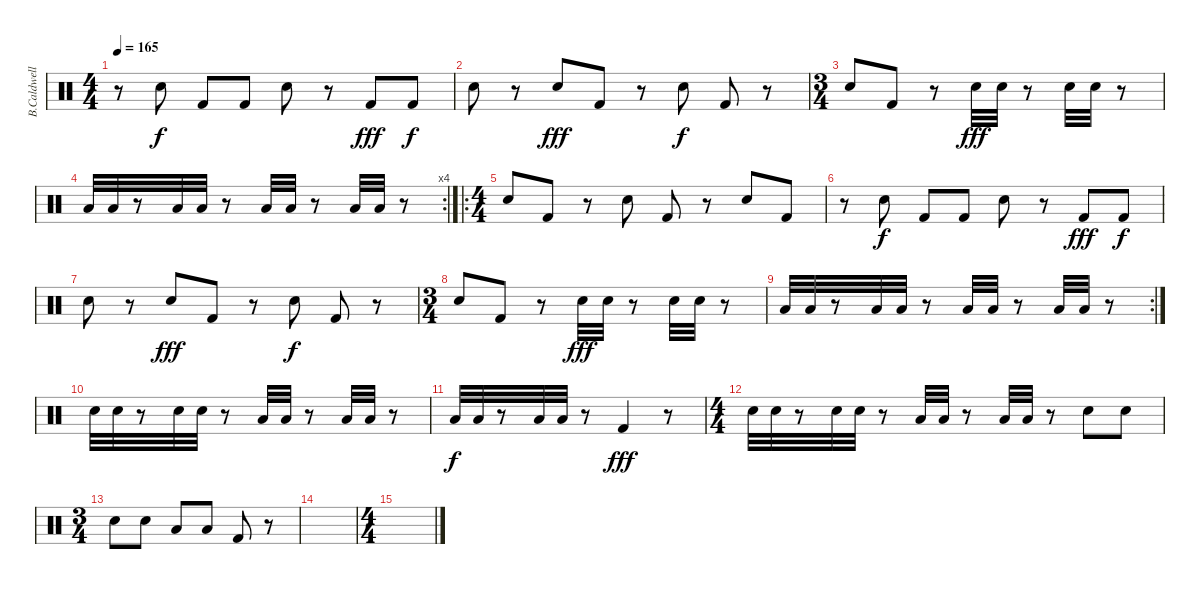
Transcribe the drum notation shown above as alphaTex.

\track ("B.Caldwell" "B.Caldwell") {instrument percussion}
\staff {score}
\articulation defaults
\ts (4 4)
\tempo 165
\clef neutral
\ks c
r.8{dy fff} "Snare (hit) 2".8{dy f} "Kick (hit) 2".8 "Kick (hit) 2".8 "Snare (hit) 2".8 r.8 "Kick (hit) 2".8{dy fff} "Kick (hit) 2".8{dy f} |
"Snare (hit) 2".8 r.8 "Snare (hit) 2".8{dy fff} "Kick (hit) 2".8 r.8 "Snare (hit) 2".8{dy f} "Kick (hit) 2".8 r.8 |
\ts (3 4)
"Snare (hit) 2".8 "Kick (hit) 2".8 r.8 "Snare (hit) 2".32{dy fff} "Snare (hit) 2".32 r.8 "Snare (hit) 2".32 "Snare (hit) 2".32 r.8 |
\rc 4 "Low Tom (hit)".32 "Low Tom (hit)".32
r.8 "Low Tom (hit)".32 "Low Tom (hit)".32 r.8 "Low Floor Tom (hit)".32 "Low Floor Tom (hit)".32 r.8 "Low Floor Tom (hit)".32 "Low Floor Tom (hit)".32 r.8 |
\ro
\ts (4 4)
"Snare (hit) 2".8 "Kick (hit) 2".8 r.8 "Snare (hit) 2".8 "Kick (hit) 2".8 r.8 "Snare (hit) 2".8 "Kick (hit) 2".8 |
r.8 "Snare (hit) 2".8{dy f} "Kick (hit) 2".8 "Kick (hit) 2".8 "Snare (hit) 2".8 r.8 "Kick (hit) 2".8{dy fff} "Kick (hit) 2".8{dy f} |
"Snare (hit) 2".8 r.8 "Snare (hit) 2".8{dy fff} "Kick (hit) 2".8 r.8 "Snare (hit) 2".8{dy f} "Kick (hit) 2".8 r.8 |
\ts (3 4)
"Snare (hit) 2".8 "Kick (hit) 2".8 r.8 "Snare (hit) 2".32{dy fff} "Snare (hit) 2".32 r.8 "Snare (hit) 2".32 "Snare (hit) 2".32 r.8 |
\rc 2 "Low Tom (hit)".32 "Low Tom (hit)".32
r.8 "Low Tom (hit)".32 "Low Tom (hit)".32 r.8 "Low Floor Tom (hit)".32 "Low Floor Tom (hit)".32 r.8 "Low Floor Tom (hit)".32 "Low Floor Tom (hit)".32 r.8 |
"Snare (hit) 2".32 "Snare (hit) 2".32 r.8 "Snare (hit) 2".32 "Snare (hit) 2".32 r.8 "Low Tom (hit)".32 "Low Tom (hit)".32 r.8 "Low Tom (hit)".32 "Low Tom (hit)".32 r.8 |
"Low Floor Tom (hit)".32{dy f} "Low Floor Tom (hit)".32 r.8 "Low Floor Tom (hit)".32 "Low Floor Tom (hit)".32 r.8 "Kick (hit) 2".4{dy fff} r.8 |
\ts (4 4)
"Snare (hit) 2".32 "Snare (hit) 2".32 r.8 "Snare (hit) 2".32 "Snare (hit) 2".32 r.8 "Low Tom (hit)".32 "Low Tom (hit)".32 r.8 "Low Tom (hit)".32 "Low Tom (hit)".32 r.8 "Snare (hit) 2".8 "Snare (hit) 2".8 |
\ts (3 4)
"Snare (hit) 2".8 "Snare (hit) 2".8 "Low Tom (hit)".8 "Low Floor Tom (hit)".8 "Kick (hit) 2".8 r.8 |
|
\ts (4 4)
